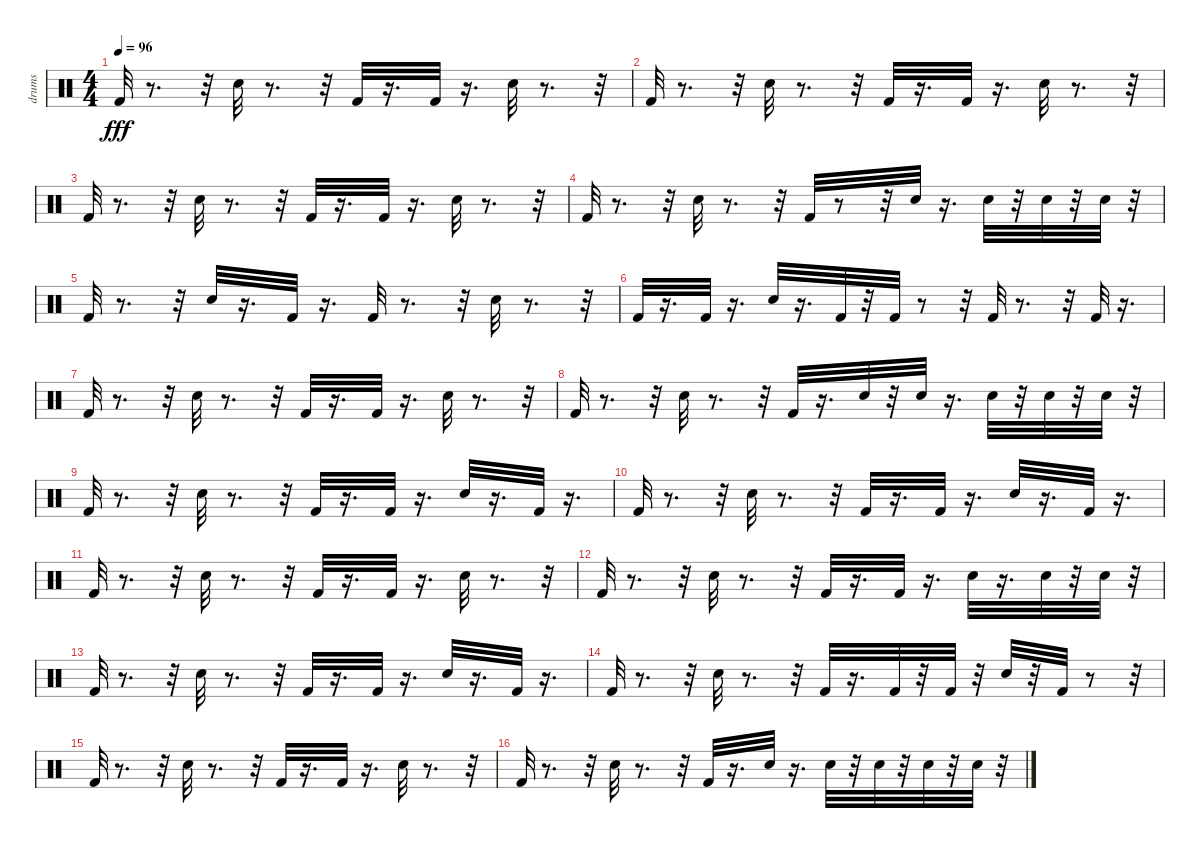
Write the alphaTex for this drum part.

\track ("drums" "drums") {instrument percussion}
\staff {score}
\articulation defaults
\ts (4 4)
\tempo 96
\clef neutral
\ks c "Kick (hit) 2".32{dy fff}
r.8{d} r.32 "Electric Snare (hit)".32 r.8{d} r.32 "Kick (hit) 2".32 r.16{d} "Kick (hit) 2".32 r.16{d} "Electric Snare (hit)".32 r.8{d} r.32 |
"Kick (hit) 2".32 r.8{d} r.32 "Electric Snare (hit)".32 r.8{d} r.32 "Kick (hit) 2".32 r.16{d} "Kick (hit) 2".32 r.16{d} "Electric Snare (hit)".32 r.8{d} r.32 |
"Kick (hit) 2".32 r.8{d} r.32 "Electric Snare (hit)".32 r.8{d} r.32 "Kick (hit) 2".32 r.16{d} "Kick (hit) 2".32 r.16{d} "Electric Snare (hit)".32 r.8{d} r.32 |
"Kick (hit) 2".32 r.8{d} r.32 "Electric Snare (hit)".32 r.8{d} r.32 "Kick (hit) 2".32 r.8 r.32 "Electric Snare (hit)".32 r.16{d} "Electric Snare (hit)".32 r.32 "Electric Snare (hit)".32 r.32 "Electric Snare (hit)".32 r.32 |
"Kick (hit) 2".32 r.8{d} r.32 "Electric Snare (hit)".32 r.16{d} "Kick (hit) 2".32 r.16{d} "Kick (hit) 2".32 r.8{d} r.32 "Electric Snare (hit)".32 r.8{d} r.32 |
"Kick (hit) 2".32 r.16{d} "Kick (hit) 2".32 r.16{d} "Electric Snare (hit)".32 r.16{d} "Kick (hit) 2".32 r.32 "Kick (hit) 2".32 r.8 r.32 "Kick (hit) 2".32 r.8{d} r.32 "Kick (hit) 2".32 r.16{d} |
"Kick (hit) 2".32 r.8{d} r.32 "Electric Snare (hit)".32 r.8{d} r.32 "Kick (hit) 2".32 r.16{d} "Kick (hit) 2".32 r.16{d} "Electric Snare (hit)".32 r.8{d} r.32 |
"Kick (hit) 2".32 r.8{d} r.32 "Electric Snare (hit)".32 r.8{d} r.32 "Kick (hit) 2".32 r.16{d} "Electric Snare (hit)".32 r.32 "Electric Snare (hit)".32 r.16{d} "Electric Snare (hit)".32 r.32 "Electric Snare (hit)".32 r.32 "Electric Snare (hit)".32 r.32 |
"Kick (hit) 2".32 r.8{d} r.32 "Electric Snare (hit)".32 r.8{d} r.32 "Kick (hit) 2".32 r.16{d} "Kick (hit) 2".32 r.16{d} "Electric Snare (hit)".32 r.16{d} "Kick (hit) 2".32 r.16{d} |
"Kick (hit) 2".32 r.8{d} r.32 "Electric Snare (hit)".32 r.8{d} r.32 "Kick (hit) 2".32 r.16{d} "Kick (hit) 2".32 r.16{d} "Electric Snare (hit)".32 r.16{d} "Kick (hit) 2".32 r.16{d} |
"Kick (hit) 2".32 r.8{d} r.32 "Electric Snare (hit)".32 r.8{d} r.32 "Kick (hit) 2".32 r.16{d} "Kick (hit) 2".32 r.16{d} "Electric Snare (hit)".32 r.8{d} r.32 |
"Kick (hit) 2".32 r.8{d} r.32 "Electric Snare (hit)".32 r.8{d} r.32 "Kick (hit) 2".32 r.16{d} "Kick (hit) 2".32 r.16{d} "Electric Snare (hit)".32 r.16{d} "Electric Snare (hit)".32 r.32 "Electric Snare (hit)".32 r.32 |
"Kick (hit) 2".32 r.8{d} r.32 "Electric Snare (hit)".32 r.8{d} r.32 "Kick (hit) 2".32 r.16{d} "Kick (hit) 2".32 r.16{d} "Electric Snare (hit)".32 r.16{d} "Kick (hit) 2".32 r.16{d} |
"Kick (hit) 2".32 r.8{d} r.32 "Electric Snare (hit)".32 r.8{d} r.32 "Kick (hit) 2".32 r.16{d} "Kick (hit) 2".32 r.32 "Kick (hit) 2".32 r.32 "Electric Snare (hit)".32 r.32 "Kick (hit) 2".32 r.8 r.32 |
"Kick (hit) 2".32 r.8{d} r.32 "Electric Snare (hit)".32 r.8{d} r.32 "Kick (hit) 2".32 r.16{d} "Kick (hit) 2".32 r.16{d} "Electric Snare (hit)".32 r.8{d} r.32 |
"Kick (hit) 2".32 r.8{d} r.32 "Electric Snare (hit)".32 r.8{d} r.32 "Kick (hit) 2".32 r.16{d} "Electric Snare (hit)".32 r.16{d} "Electric Snare (hit)".32 r.32 "Electric Snare (hit)".32 r.32 "Electric Snare (hit)".32 r.32 "Electric Snare (hit)".32 r.32
